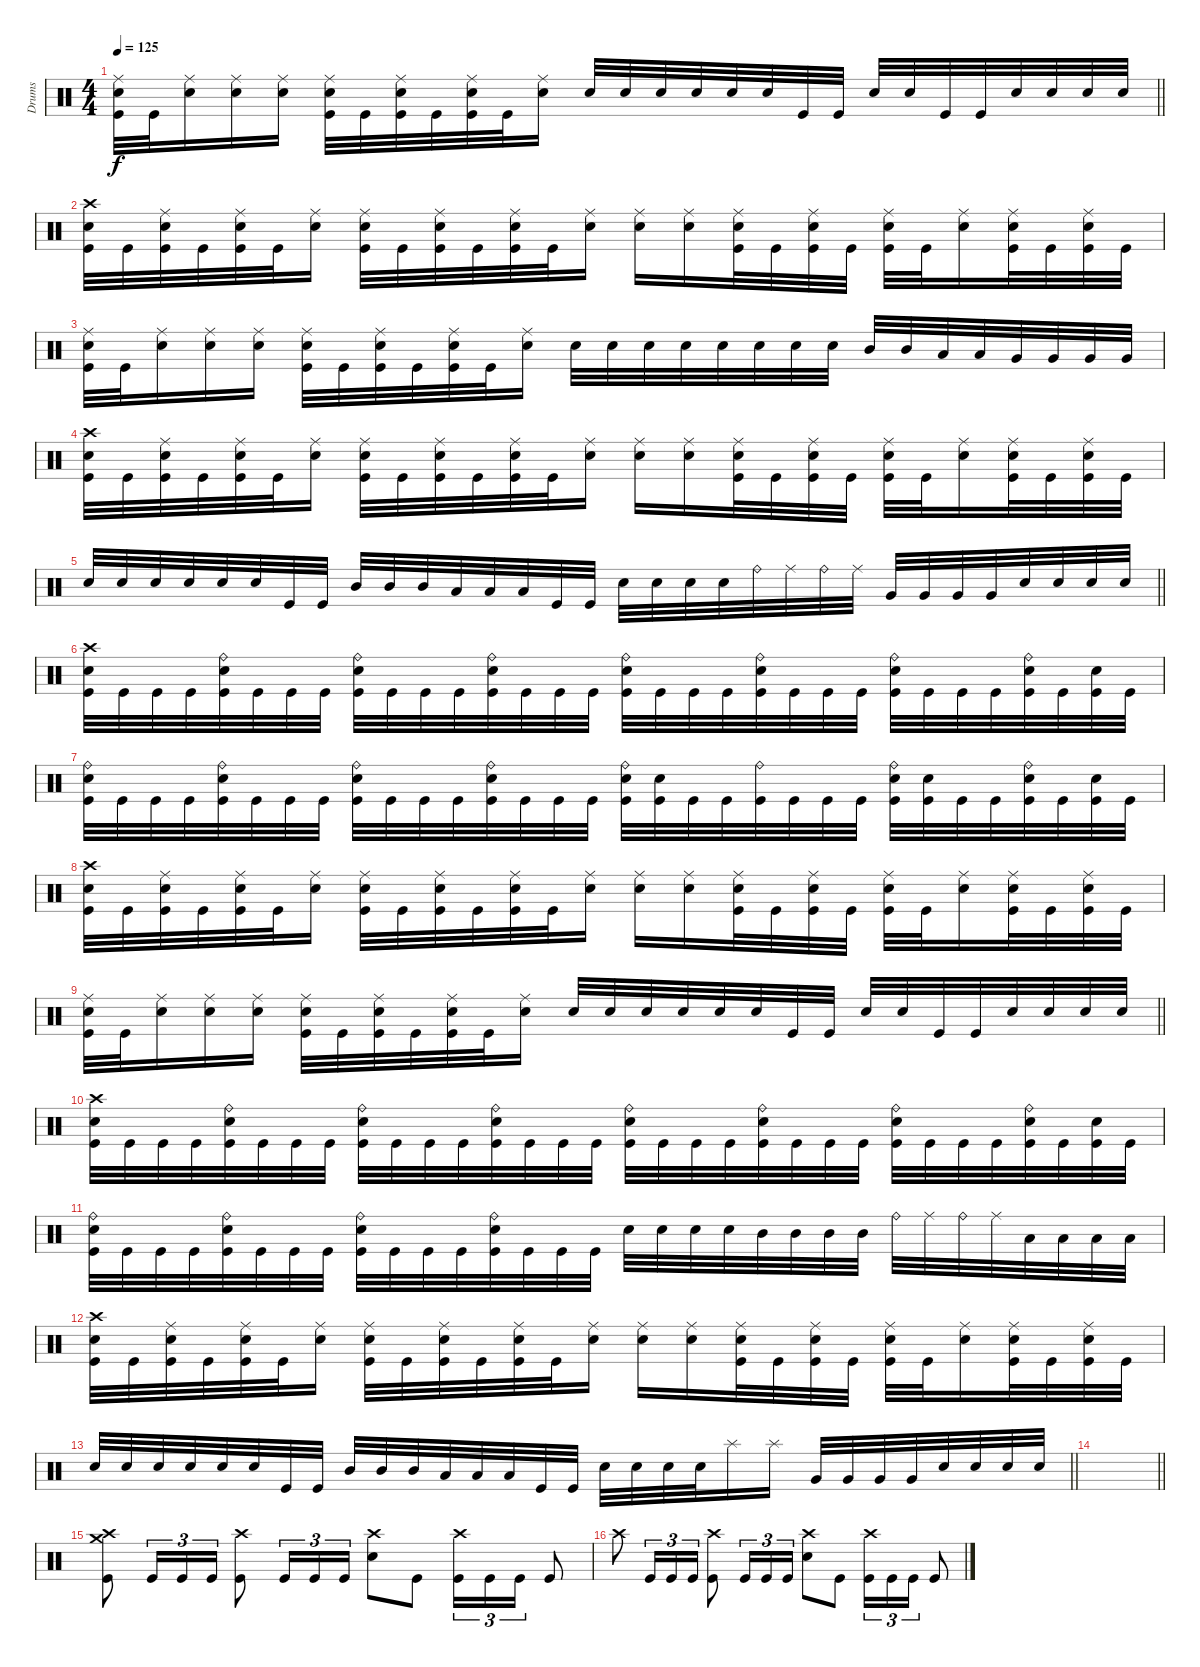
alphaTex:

\track ("Drums" "Drums") {instrument percussion}
\staff
\articulation defaults
\ts (4 4)
\tempo 125
\clef neutral
\barLineRight lightlight
\ks c
("Ride (middle)" "Electric Snare (hit)" "Kick (hit)").32{dy f} "Kick (hit)".32 ("Ride (middle)" "Electric Snare (hit)").16 ("Ride (middle)" "Electric Snare (hit)").16 ("Ride (middle)" "Electric Snare (hit)").16 ("Ride (middle)" "Electric Snare (hit)" "Kick (hit)").32 "Kick (hit)".32 ("Ride (middle)" "Electric Snare (hit)" "Kick (hit)").32 "Kick (hit)".32 ("Ride (middle)" "Electric Snare (hit)" "Kick (hit)").32 "Kick (hit)".32 ("Ride (middle)" "Electric Snare (hit)").16 "Electric Snare (hit)".32 "Electric Snare (hit)".32 "Electric Snare (hit)".32 "Electric Snare (hit)".32 "Electric Snare (hit)".32 "Electric Snare (hit)".32 "Kick (hit)".32 "Kick (hit)".32 "Electric Snare (hit)".32 "Electric Snare (hit)".32 "Kick (hit)".32 "Kick (hit)".32 "Electric Snare (hit)".32 "Electric Snare (hit)".32 "Electric Snare (hit)".32 "Electric Snare (hit)".32 |
("Crash high (hit)" "Electric Snare (hit)" "Kick (hit)").32 "Kick (hit)".32 ("Ride (middle)" "Electric Snare (hit)" "Kick (hit)").32 "Kick (hit)".32 ("Ride (middle)" "Electric Snare (hit)" "Kick (hit)").32 "Kick (hit)".32 ("Ride (middle)" "Electric Snare (hit)").16 ("Ride (middle)" "Electric Snare (hit)" "Kick (hit)").32 "Kick (hit)".32 ("Ride (middle)" "Electric Snare (hit)" "Kick (hit)").32 "Kick (hit)".32 ("Ride (middle)" "Electric Snare (hit)" "Kick (hit)").32 "Kick (hit)".32 ("Ride (middle)" "Electric Snare (hit)").16 ("Ride (middle)" "Electric Snare (hit)").16 ("Ride (middle)" "Electric Snare (hit)").16 ("Ride (middle)" "Electric Snare (hit)" "Kick (hit)").32 "Kick (hit)".32 ("Ride (middle)" "Electric Snare (hit)" "Kick (hit)").32 "Kick (hit)".32 ("Ride (middle)" "Electric Snare (hit)" "Kick (hit)").32 "Kick (hit)".32 ("Ride (middle)" "Electric Snare (hit)").16 ("Ride (middle)" "Electric Snare (hit)" "Kick (hit)").32 "Kick (hit)".32 ("Ride (middle)" "Electric Snare (hit)" "Kick (hit)").32 "Kick (hit)".32 |
("Ride (middle)" "Electric Snare (hit)" "Kick (hit)").32 "Kick (hit)".32 ("Ride (middle)" "Electric Snare (hit)").16 ("Ride (middle)" "Electric Snare (hit)").16 ("Ride (middle)" "Electric Snare (hit)").16 ("Ride (middle)" "Electric Snare (hit)" "Kick (hit)").32 "Kick (hit)".32 ("Ride (middle)" "Electric Snare (hit)" "Kick (hit)").32 "Kick (hit)".32 ("Ride (middle)" "Electric Snare (hit)" "Kick (hit)").32 "Kick (hit)".32 ("Ride (middle)" "Electric Snare (hit)").16 "Electric Snare (hit)".32 "Electric Snare (hit)".32 "Electric Snare (hit)".32 "Electric Snare (hit)".32 "Electric Snare (hit)".32 "Electric Snare (hit)".32 "Electric Snare (hit)".32 "Electric Snare (hit)".32 "Mid Tom (hit)".32 "Mid Tom (hit)".32 "Low Tom (hit)".32 "Low Tom (hit)".32 "Very Low Tom (hit)".32 "Very Low Tom (hit)".32 "Very Low Tom (hit)".32 "Very Low Tom (hit)".32 |
("Crash high (hit)" "Electric Snare (hit)" "Kick (hit)").32 "Kick (hit)".32 ("Ride (middle)" "Electric Snare (hit)" "Kick (hit)").32 "Kick (hit)".32 ("Ride (middle)" "Electric Snare (hit)" "Kick (hit)").32 "Kick (hit)".32 ("Ride (middle)" "Electric Snare (hit)").16 ("Ride (middle)" "Electric Snare (hit)" "Kick (hit)").32 "Kick (hit)".32 ("Ride (middle)" "Electric Snare (hit)" "Kick (hit)").32 "Kick (hit)".32 ("Ride (middle)" "Electric Snare (hit)" "Kick (hit)").32 "Kick (hit)".32 ("Ride (middle)" "Electric Snare (hit)").16 ("Ride (middle)" "Electric Snare (hit)").16 ("Ride (middle)" "Electric Snare (hit)").16 ("Ride (middle)" "Electric Snare (hit)" "Kick (hit)").32 "Kick (hit)".32 ("Ride (middle)" "Electric Snare (hit)" "Kick (hit)").32 "Kick (hit)".32 ("Ride (middle)" "Electric Snare (hit)" "Kick (hit)").32 "Kick (hit)".32 ("Ride (middle)" "Electric Snare (hit)").16 ("Ride (middle)" "Electric Snare (hit)" "Kick (hit)").32 "Kick (hit)".32 ("Ride (middle)" "Electric Snare (hit)" "Kick (hit)").32 "Kick (hit)".32 |
\barLineRight lightlight "Electric Snare (hit)".32 "Electric Snare (hit)".32 "Electric Snare (hit)".32 "Electric Snare (hit)".32 "Electric Snare (hit)".32 "Electric Snare (hit)".32 "Kick (hit)".32 "Kick (hit)".32 "Mid Tom (hit)".32 "Mid Tom (hit)".32 "Mid Tom (hit)".32 "Low Tom (hit)".32 "Low Tom (hit)".32 "Low Tom (hit)".32 "Kick (hit)".32 "Kick (hit)".32 "Electric Snare (hit)".32 "Electric Snare (hit)".32 "Electric Snare (hit)".32 "Electric Snare (hit)".32 "Ride (bell)".32 "Ride (middle)".32 "Ride (bell)".32 "Ride (middle)".32 "Very Low Tom (hit)".32 "Very Low Tom (hit)".32 "Very Low Tom (hit)".32 "Very Low Tom (hit)".32 "Electric Snare (hit)".32 "Electric Snare (hit)".32 "Electric Snare (hit)".32 "Electric Snare (hit)".32
|
("Crash high (hit)" "Electric Snare (hit)" "Kick (hit)").32 "Kick (hit)".32 "Kick (hit)".32 "Kick (hit)".32 ("Ride (bell)" "Electric Snare (hit)" "Kick (hit)").32 "Kick (hit)".32 "Kick (hit)".32 "Kick (hit)".32 ("Ride (bell)" "Electric Snare (hit)" "Kick (hit)").32 "Kick (hit)".32 "Kick (hit)".32 "Kick (hit)".32 ("Ride (bell)" "Electric Snare (hit)" "Kick (hit)").32 "Kick (hit)".32 "Kick (hit)".32 "Kick (hit)".32 ("Ride (bell)" "Electric Snare (hit)" "Kick (hit)").32 "Kick (hit)".32 "Kick (hit)".32 "Kick (hit)".32 ("Ride (bell)" "Electric Snare (hit)" "Kick (hit)").32 "Kick (hit)".32 "Kick (hit)".32 "Kick (hit)".32 ("Ride (bell)" "Electric Snare (hit)" "Kick (hit)").32 "Kick (hit)".32 "Kick (hit)".32 "Kick (hit)".32 ("Ride (bell)" "Electric Snare (hit)" "Kick (hit)").32 "Kick (hit)".32 ("Electric Snare (hit)" "Kick (hit)").32 "Kick (hit)".32 |
("Ride (bell)" "Electric Snare (hit)" "Kick (hit)").32 "Kick (hit)".32 "Kick (hit)".32 "Kick (hit)".32 ("Ride (bell)" "Electric Snare (hit)" "Kick (hit)").32 "Kick (hit)".32 "Kick (hit)".32 "Kick (hit)".32 ("Ride (bell)" "Electric Snare (hit)" "Kick (hit)").32 "Kick (hit)".32 "Kick (hit)".32 "Kick (hit)".32 ("Ride (bell)" "Electric Snare (hit)" "Kick (hit)").32 "Kick (hit)".32 "Kick (hit)".32 "Kick (hit)".32 ("Ride (bell)" "Electric Snare (hit)" "Kick (hit)").32 ("Electric Snare (hit)" "Kick (hit)").32 "Kick (hit)".32 "Kick (hit)".32 ("Ride (bell)" "Kick (hit)").32 "Kick (hit)".32 "Kick (hit)".32 "Kick (hit)".32 ("Ride (bell)" "Electric Snare (hit)" "Kick (hit)").32 ("Electric Snare (hit)" "Kick (hit)").32 "Kick (hit)".32 "Kick (hit)".32 ("Ride (bell)" "Electric Snare (hit)" "Kick (hit)").32 "Kick (hit)".32 ("Electric Snare (hit)" "Kick (hit)").32 "Kick (hit)".32 |
("Crash high (hit)" "Electric Snare (hit)" "Kick (hit)").32 "Kick (hit)".32 ("Ride (middle)" "Electric Snare (hit)" "Kick (hit)").32 "Kick (hit)".32 ("Ride (middle)" "Electric Snare (hit)" "Kick (hit)").32 "Kick (hit)".32 ("Ride (middle)" "Electric Snare (hit)").16 ("Ride (middle)" "Electric Snare (hit)" "Kick (hit)").32 "Kick (hit)".32 ("Ride (middle)" "Electric Snare (hit)" "Kick (hit)").32 "Kick (hit)".32 ("Ride (middle)" "Electric Snare (hit)" "Kick (hit)").32 "Kick (hit)".32 ("Ride (middle)" "Electric Snare (hit)").16 ("Ride (middle)" "Electric Snare (hit)").16 ("Ride (middle)" "Electric Snare (hit)").16 ("Ride (middle)" "Electric Snare (hit)" "Kick (hit)").32 "Kick (hit)".32 ("Ride (middle)" "Electric Snare (hit)" "Kick (hit)").32 "Kick (hit)".32 ("Ride (middle)" "Electric Snare (hit)" "Kick (hit)").32 "Kick (hit)".32 ("Ride (middle)" "Electric Snare (hit)").16 ("Ride (middle)" "Electric Snare (hit)" "Kick (hit)").32 "Kick (hit)".32 ("Ride (middle)" "Electric Snare (hit)" "Kick (hit)").32 "Kick (hit)".32 |
\barLineRight lightlight
("Ride (middle)" "Electric Snare (hit)" "Kick (hit)").32 "Kick (hit)".32 ("Ride (middle)" "Electric Snare (hit)").16 ("Ride (middle)" "Electric Snare (hit)").16 ("Ride (middle)" "Electric Snare (hit)").16 ("Ride (middle)" "Electric Snare (hit)" "Kick (hit)").32 "Kick (hit)".32 ("Ride (middle)" "Electric Snare (hit)" "Kick (hit)").32 "Kick (hit)".32 ("Ride (middle)" "Electric Snare (hit)" "Kick (hit)").32 "Kick (hit)".32 ("Ride (middle)" "Electric Snare (hit)").16 "Electric Snare (hit)".32 "Electric Snare (hit)".32 "Electric Snare (hit)".32 "Electric Snare (hit)".32 "Electric Snare (hit)".32 "Electric Snare (hit)".32 "Kick (hit)".32 "Kick (hit)".32 "Electric Snare (hit)".32 "Electric Snare (hit)".32 "Kick (hit)".32 "Kick (hit)".32 "Electric Snare (hit)".32 "Electric Snare (hit)".32 "Electric Snare (hit)".32 "Electric Snare (hit)".32 |
("Crash high (hit)" "Electric Snare (hit)" "Kick (hit)").32 "Kick (hit)".32 "Kick (hit)".32 "Kick (hit)".32 ("Ride (bell)" "Electric Snare (hit)" "Kick (hit)").32 "Kick (hit)".32 "Kick (hit)".32 "Kick (hit)".32 ("Ride (bell)" "Electric Snare (hit)" "Kick (hit)").32 "Kick (hit)".32 "Kick (hit)".32 "Kick (hit)".32 ("Ride (bell)" "Electric Snare (hit)" "Kick (hit)").32 "Kick (hit)".32 "Kick (hit)".32 "Kick (hit)".32 ("Ride (bell)" "Electric Snare (hit)" "Kick (hit)").32 "Kick (hit)".32 "Kick (hit)".32 "Kick (hit)".32 ("Ride (bell)" "Electric Snare (hit)" "Kick (hit)").32 "Kick (hit)".32 "Kick (hit)".32 "Kick (hit)".32 ("Ride (bell)" "Electric Snare (hit)" "Kick (hit)").32 "Kick (hit)".32 "Kick (hit)".32 "Kick (hit)".32 ("Ride (bell)" "Electric Snare (hit)" "Kick (hit)").32 "Kick (hit)".32 ("Electric Snare (hit)" "Kick (hit)").32 "Kick (hit)".32 |
("Ride (bell)" "Electric Snare (hit)" "Kick (hit)").32 "Kick (hit)".32 "Kick (hit)".32 "Kick (hit)".32 ("Ride (bell)" "Electric Snare (hit)" "Kick (hit)").32 "Kick (hit)".32 "Kick (hit)".32 "Kick (hit)".32 ("Ride (bell)" "Electric Snare (hit)" "Kick (hit)").32 "Kick (hit)".32 "Kick (hit)".32 "Kick (hit)".32 ("Ride (bell)" "Electric Snare (hit)" "Kick (hit)").32 "Kick (hit)".32 "Kick (hit)".32 "Kick (hit)".32 "Electric Snare (hit)".32 "Electric Snare (hit)".32 "Electric Snare (hit)".32 "Electric Snare (hit)".32 "Mid Tom (hit)".32 "Mid Tom (hit)".32 "Mid Tom (hit)".32 "Mid Tom (hit)".32 "Ride (bell)".32 "Ride (middle)".32 "Ride (bell)".32 "Ride (middle)".32 "Low Tom (hit)".32 "Low Tom (hit)".32 "Low Tom (hit)".32 "Low Tom (hit)".32 |
("Crash high (hit)" "Electric Snare (hit)" "Kick (hit)").32 "Kick (hit)".32 ("Ride (middle)" "Electric Snare (hit)" "Kick (hit)").32 "Kick (hit)".32 ("Ride (middle)" "Electric Snare (hit)" "Kick (hit)").32 "Kick (hit)".32 ("Ride (middle)" "Electric Snare (hit)").16 ("Ride (middle)" "Electric Snare (hit)" "Kick (hit)").32 "Kick (hit)".32 ("Ride (middle)" "Electric Snare (hit)" "Kick (hit)").32 "Kick (hit)".32 ("Ride (middle)" "Electric Snare (hit)" "Kick (hit)").32 "Kick (hit)".32 ("Ride (middle)" "Electric Snare (hit)").16 ("Ride (middle)" "Electric Snare (hit)").16 ("Ride (middle)" "Electric Snare (hit)").16 ("Ride (middle)" "Electric Snare (hit)" "Kick (hit)").32 "Kick (hit)".32 ("Ride (middle)" "Electric Snare (hit)" "Kick (hit)").32 "Kick (hit)".32 ("Ride (middle)" "Electric Snare (hit)" "Kick (hit)").32 "Kick (hit)".32 ("Ride (middle)" "Electric Snare (hit)").16 ("Ride (middle)" "Electric Snare (hit)" "Kick (hit)").32 "Kick (hit)".32 ("Ride (middle)" "Electric Snare (hit)" "Kick (hit)").32 "Kick (hit)".32 |
\barLineRight lightlight "Electric Snare (hit)".32 "Electric Snare (hit)".32 "Electric Snare (hit)".32 "Electric Snare (hit)".32 "Electric Snare (hit)".32 "Electric Snare (hit)".32 "Kick (hit)".32 "Kick (hit)".32 "Mid Tom (hit)".32 "Mid Tom (hit)".32 "Mid Tom (hit)".32 "Low Tom (hit)".32 "Low Tom (hit)".32 "Low Tom (hit)".32 "Kick (hit)".32 "Kick (hit)".32 "Electric Snare (hit)".32 "Electric Snare (hit)".32 "Electric Snare (hit)".32 "Electric Snare (hit)".32 "Splash (hit)".16 "Splash (hit)".16 "Very Low Tom (hit)".32 "Very Low Tom (hit)".32 "Very Low Tom (hit)".32 "Very Low Tom (hit)".32 "Electric Snare (hit)".32 "Electric Snare (hit)".32 "Electric Snare (hit)".32 "Electric Snare (hit)".32
|
\barLineRight lightlight
|
\section ("" "")
("Crash high (hit)" "Crash medium (hit)" "Kick (hit)").8 "Kick (hit)".16{tu (3 2)} "Kick (hit)".16{tu (3 2)} "Kick (hit)".16{tu (3 2)} ("Crash high (hit)" "Kick (hit)").8 "Kick (hit)".16{tu (3 2)} "Kick (hit)".16{tu (3 2)} "Kick (hit)".16{tu (3 2)} ("Crash high (hit)" "Electric Snare (hit)").8 "Kick (hit)".8 ("Crash high (hit)" "Kick (hit)").16{tu (3 2)} "Kick (hit)".16{tu (3 2)} "Kick (hit)".16{tu (3 2)} "Kick (hit)".8 |
"Crash high (hit)".8 "Kick (hit)".16{tu (3 2)} "Kick (hit)".16{tu (3 2)} "Kick (hit)".16{tu (3 2)} ("Crash high (hit)" "Kick (hit)").8 "Kick (hit)".16{tu (3 2)} "Kick (hit)".16{tu (3 2)} "Kick (hit)".16{tu (3 2)} ("Crash high (hit)" "Electric Snare (hit)").8 "Kick (hit)".8 ("Crash high (hit)" "Kick (hit)").16{tu (3 2)} "Kick (hit)".16{tu (3 2)} "Kick (hit)".16{tu (3 2)} "Kick (hit)".8
